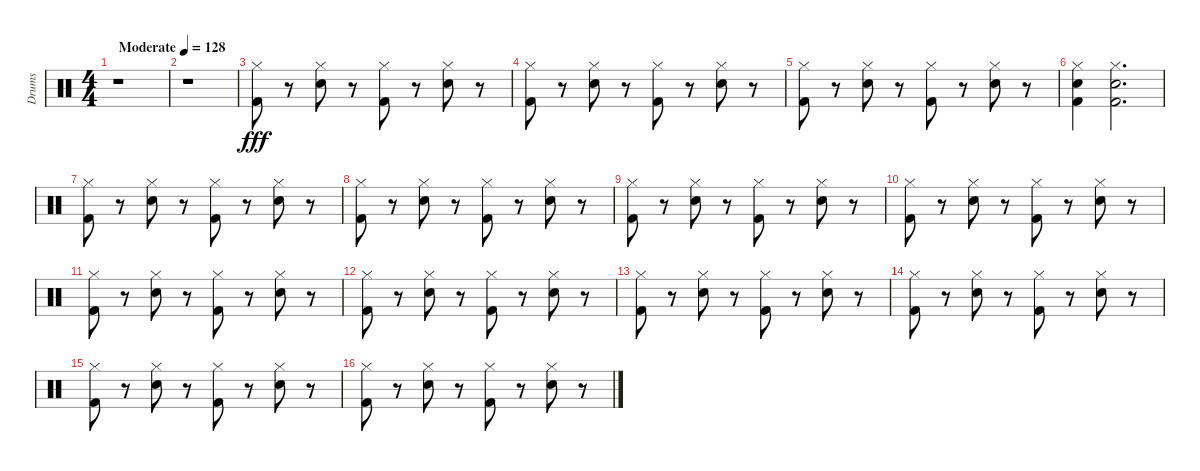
\track ("Drums" "Drums") {instrument percussion}
\staff {score}
\articulation defaults
\ts (4 4)
\tempo (128 "Moderate")
\clef neutral
\ks c
r.1{dy fff} |
r.1 |
("Hi-Hat (closed)" "Kick (hit) 2").8 r.8 ("Hi-Hat (closed)" "Snare (hit) 2").8 r.8 ("Hi-Hat (closed)" "Kick (hit) 2").8 r.8 ("Hi-Hat (closed)" "Snare (hit) 2").8 r.8 |
("Hi-Hat (closed)" "Kick (hit) 2").8 r.8 ("Hi-Hat (closed)" "Snare (hit) 2").8 r.8 ("Hi-Hat (closed)" "Kick (hit) 2").8 r.8 ("Hi-Hat (closed)" "Snare (hit) 2").8 r.8 |
("Hi-Hat (closed)" "Kick (hit) 2").8 r.8 ("Hi-Hat (closed)" "Snare (hit) 2").8 r.8 ("Hi-Hat (closed)" "Kick (hit) 2").8 r.8 ("Hi-Hat (closed)" "Snare (hit) 2").8 r.8 |
("Hi-Hat (closed)" "Kick (hit) 2" "Snare (hit) 2").4 ("Hi-Hat (closed)" "Kick (hit) 2" "Snare (hit) 2").2{d} |
("Hi-Hat (closed)" "Kick (hit) 2").8 r.8 ("Hi-Hat (closed)" "Snare (hit) 2").8 r.8 ("Hi-Hat (closed)" "Kick (hit) 2").8 r.8 ("Hi-Hat (closed)" "Snare (hit) 2").8 r.8 |
("Hi-Hat (closed)" "Kick (hit) 2").8 r.8 ("Hi-Hat (closed)" "Snare (hit) 2").8 r.8 ("Hi-Hat (closed)" "Kick (hit) 2").8 r.8 ("Hi-Hat (closed)" "Snare (hit) 2").8 r.8 |
("Hi-Hat (closed)" "Kick (hit) 2").8 r.8 ("Hi-Hat (closed)" "Snare (hit) 2").8 r.8 ("Hi-Hat (closed)" "Kick (hit) 2").8 r.8 ("Hi-Hat (closed)" "Snare (hit) 2").8 r.8 |
("Hi-Hat (closed)" "Kick (hit) 2").8 r.8 ("Hi-Hat (closed)" "Snare (hit) 2").8 r.8 ("Hi-Hat (closed)" "Kick (hit) 2").8 r.8 ("Hi-Hat (closed)" "Snare (hit) 2").8 r.8 |
("Hi-Hat (closed)" "Kick (hit) 2").8 r.8 ("Hi-Hat (closed)" "Snare (hit) 2").8 r.8 ("Hi-Hat (closed)" "Kick (hit) 2").8 r.8 ("Hi-Hat (closed)" "Snare (hit) 2").8 r.8 |
("Hi-Hat (closed)" "Kick (hit) 2").8 r.8 ("Hi-Hat (closed)" "Snare (hit) 2").8 r.8 ("Hi-Hat (closed)" "Kick (hit) 2").8 r.8 ("Hi-Hat (closed)" "Snare (hit) 2").8 r.8 |
("Hi-Hat (closed)" "Kick (hit) 2").8 r.8 ("Hi-Hat (closed)" "Snare (hit) 2").8 r.8 ("Hi-Hat (closed)" "Kick (hit) 2").8 r.8 ("Hi-Hat (closed)" "Snare (hit) 2").8 r.8 |
("Hi-Hat (closed)" "Kick (hit) 2").8 r.8 ("Hi-Hat (closed)" "Snare (hit) 2").8 r.8 ("Hi-Hat (closed)" "Kick (hit) 2").8 r.8 ("Hi-Hat (closed)" "Snare (hit) 2").8 r.8 |
("Hi-Hat (closed)" "Kick (hit) 2").8 r.8 ("Hi-Hat (closed)" "Snare (hit) 2").8 r.8 ("Hi-Hat (closed)" "Kick (hit) 2").8 r.8 ("Hi-Hat (closed)" "Snare (hit) 2").8 r.8 |
("Hi-Hat (closed)" "Kick (hit) 2").8 r.8 ("Hi-Hat (closed)" "Snare (hit) 2").8 r.8 ("Hi-Hat (closed)" "Kick (hit) 2").8 r.8 ("Hi-Hat (closed)" "Snare (hit) 2").8 r.8
